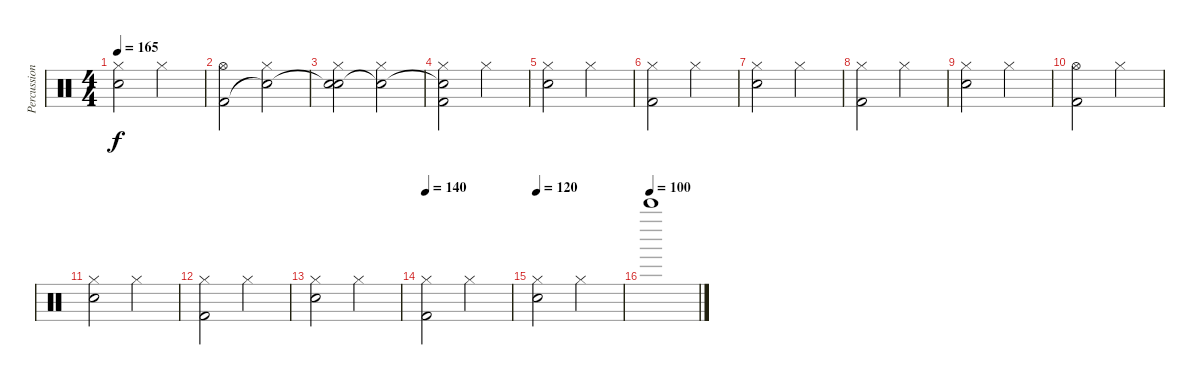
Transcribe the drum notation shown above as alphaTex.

\track ("Percussion" "Percussion") {instrument percussion}
\staff {score}
\articulation defaults
\ts (4 4)
\tempo 165
\clef neutral
\ks c
("Hi-Hat (closed)" "Electric Snare (hit)").2{dy f} "Hi-Hat (closed)".2 |
("Hi-Hat (open)" "Kick (hit) 2").2 ("Hi-Hat (closed)" "Snare (hit)"{t}).2 |
("Hi-Hat (closed)" "Snare (hit)"{t} "Electric Snare (hit)").2 ("Hi-Hat (closed)" "Snare (hit)"{t}).2 |
("Hi-Hat (closed)" "Snare (hit)"{t} "Kick (hit) 2").2 "Hi-Hat (closed)".2 |
("Hi-Hat (closed)" "Electric Snare (hit)").2 "Hi-Hat (closed)".2 |
("Hi-Hat (closed)" "Kick (hit) 2").2 "Hi-Hat (closed)".2 |
("Hi-Hat (closed)" "Electric Snare (hit)").2 "Hi-Hat (closed)".2 |
("Hi-Hat (closed)" "Kick (hit) 2").2 "Hi-Hat (closed)".2 |
("Hi-Hat (closed)" "Electric Snare (hit)").2 "Hi-Hat (closed)".2 |
("Hi-Hat (open)" "Kick (hit) 2").2 "Hi-Hat (closed)".2 |
("Hi-Hat (closed)" "Electric Snare (hit)").2 "Hi-Hat (closed)".2 |
("Hi-Hat (closed)" "Kick (hit) 2").2 "Hi-Hat (closed)".2 |
("Hi-Hat (closed)" "Electric Snare (hit)").2 "Hi-Hat (closed)".2 |
\tempo 140
("Hi-Hat (closed)" "Kick (hit) 2").2 "Hi-Hat (closed)".2 |
\tempo 120
("Hi-Hat (closed)" "Electric Snare (hit)").2 "Hi-Hat (closed)".2 |
\tempo (100)
"Bell Tree (hit)".1
